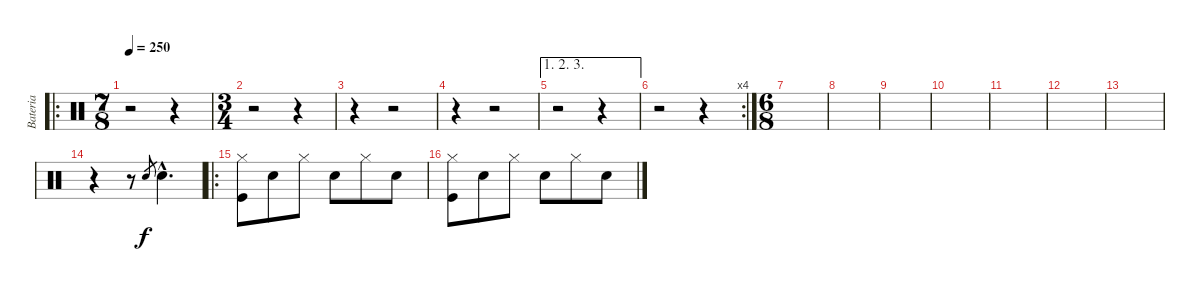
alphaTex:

\track ("Bateria" "Bateria") {instrument percussion}
\staff {score}
\articulation defaults
\ro
\ts (7 8)
\tempo 250
\clef neutral
\ks c
r.2{dy f} r.4 |
\ts (3 4)
r.2 r.4 |
r.4 r.2 |
r.4 r.2 |
\ae (1 2 3)
r.2 r.4 |
\rc 4
r.2 r.4 |
\ts (6 8)
|
|
|
|
|
|
|
r.4 r.8 "Snare (hit) 2".8{gr} "Snare (hit) 2"{hac}.4{d} |
\ro
("Hi-Hat (closed)" "Kick (hit)").8 "Snare (hit) 2".8 "Hi-Hat (closed)".8 "Snare (hit) 2".8 "Hi-Hat (closed)".8 "Snare (hit) 2".8 |
("Hi-Hat (closed)" "Kick (hit)").8 "Snare (hit) 2".8 "Hi-Hat (closed)".8 "Snare (hit) 2".8 "Hi-Hat (closed)".8 "Snare (hit) 2".8
